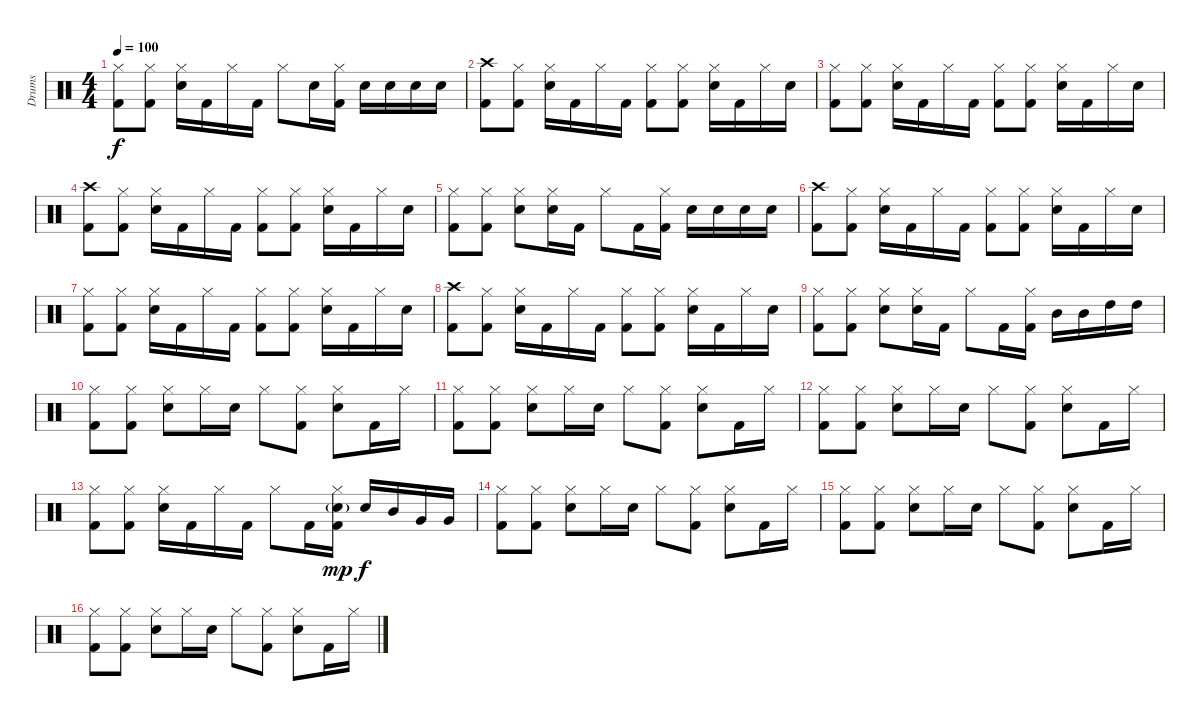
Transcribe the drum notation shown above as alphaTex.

\track ("Drums" "Drums") {instrument percussion}
\staff {score}
\articulation defaults
\ts (4 4)
\tempo 100
\clef neutral
\ks c
("Hi-Hat (closed)" "Kick (hit) 2").8{dy f} ("Hi-Hat (closed)" "Kick (hit) 2").8 ("Hi-Hat (closed)" "Snare (hit) 2").16 "Kick (hit) 2".16 "Hi-Hat (closed)".16 "Kick (hit) 2".16 "Hi-Hat (closed)".8 "Snare (hit) 2".16 ("Hi-Hat (closed)" "Kick (hit) 2").16 "Snare (hit) 2".16 "Snare (hit) 2".16 "Snare (hit) 2".16 "Snare (hit) 2".16 |
("Crash high (hit)" "Kick (hit) 2").8 ("Hi-Hat (closed)" "Kick (hit) 2").8 ("Hi-Hat (closed)" "Snare (hit) 2").16 "Kick (hit) 2".16 "Hi-Hat (closed)".16 "Kick (hit) 2".16 ("Hi-Hat (closed)" "Kick (hit) 2").8 ("Hi-Hat (closed)" "Kick (hit) 2").8 ("Hi-Hat (closed)" "Snare (hit) 2").16 "Kick (hit) 2".16 "Hi-Hat (closed)".16 "Snare (hit) 2".16 |
("Hi-Hat (closed)" "Kick (hit) 2").8 ("Hi-Hat (closed)" "Kick (hit) 2").8 ("Hi-Hat (closed)" "Snare (hit) 2").16 "Kick (hit) 2".16 "Hi-Hat (closed)".16 "Kick (hit) 2".16 ("Hi-Hat (closed)" "Kick (hit) 2").8 ("Hi-Hat (closed)" "Kick (hit) 2").8 ("Hi-Hat (closed)" "Snare (hit) 2").16 "Kick (hit) 2".16 "Hi-Hat (closed)".16 "Snare (hit) 2".16 |
("Crash high (hit)" "Kick (hit) 2").8 ("Hi-Hat (closed)" "Kick (hit) 2").8 ("Hi-Hat (closed)" "Snare (hit) 2").16 "Kick (hit) 2".16 "Hi-Hat (closed)".16 "Kick (hit) 2".16 ("Hi-Hat (closed)" "Kick (hit) 2").8 ("Hi-Hat (closed)" "Kick (hit) 2").8 ("Hi-Hat (closed)" "Snare (hit) 2").16 "Kick (hit) 2".16 "Hi-Hat (closed)".16 "Snare (hit) 2".16 |
("Hi-Hat (closed)" "Kick (hit) 2").8 ("Hi-Hat (closed)" "Kick (hit) 2").8 ("Hi-Hat (closed)" "Snare (hit) 2").8 ("Hi-Hat (closed)" "Snare (hit) 2").16 "Kick (hit) 2".16 "Hi-Hat (closed)".8 "Kick (hit) 2".16 ("Hi-Hat (closed)" "Kick (hit) 2").16 "Electric Snare (hit)".16 "Electric Snare (hit)".16 "Electric Snare (hit)".16 "Electric Snare (hit)".16 |
("Crash high (hit)" "Kick (hit) 2").8 ("Hi-Hat (closed)" "Kick (hit) 2").8 ("Hi-Hat (closed)" "Snare (hit) 2").16 "Kick (hit) 2".16 "Hi-Hat (closed)".16 "Kick (hit) 2".16 ("Hi-Hat (closed)" "Kick (hit) 2").8 ("Hi-Hat (closed)" "Kick (hit) 2").8 ("Hi-Hat (closed)" "Snare (hit) 2").16 "Kick (hit) 2".16 "Hi-Hat (closed)".16 "Snare (hit) 2".16 |
("Hi-Hat (closed)" "Kick (hit) 2").8 ("Hi-Hat (closed)" "Kick (hit) 2").8 ("Hi-Hat (closed)" "Snare (hit) 2").16 "Kick (hit) 2".16 "Hi-Hat (closed)".16 "Kick (hit) 2".16 ("Hi-Hat (closed)" "Kick (hit) 2").8 ("Hi-Hat (closed)" "Kick (hit) 2").8 ("Hi-Hat (closed)" "Snare (hit) 2").16 "Kick (hit) 2".16 "Hi-Hat (closed)".16 "Snare (hit) 2".16 |
("Crash high (hit)" "Kick (hit) 2").8 ("Hi-Hat (closed)" "Kick (hit) 2").8 ("Hi-Hat (closed)" "Snare (hit) 2").16 "Kick (hit) 2".16 "Hi-Hat (closed)".16 "Kick (hit) 2".16 ("Hi-Hat (closed)" "Kick (hit) 2").8 ("Hi-Hat (closed)" "Kick (hit) 2").8 ("Hi-Hat (closed)" "Snare (hit) 2").16 "Kick (hit) 2".16 "Hi-Hat (closed)".16 "Snare (hit) 2".16 |
("Hi-Hat (closed)" "Kick (hit) 2").8 ("Hi-Hat (closed)" "Kick (hit) 2").8 ("Hi-Hat (closed)" "Snare (hit) 2").8 ("Hi-Hat (closed)" "Snare (hit) 2").16 "Kick (hit) 2".16 "Hi-Hat (closed)".8 "Kick (hit) 2".16 ("Hi-Hat (closed)" "Kick (hit) 2").16 "Mid Tom (hit)".16 "Mid Tom (hit)".16 "High Tom (hit)".16 "High Tom (hit)".16 |
("Hi-Hat (closed)" "Kick (hit) 2").8 ("Hi-Hat (closed)" "Kick (hit) 2").8 ("Hi-Hat (closed)" "Snare (hit) 2").8 "Hi-Hat (closed)".16 "Snare (hit) 2".16 "Hi-Hat (closed)".8 ("Hi-Hat (closed)" "Kick (hit) 2").8 ("Hi-Hat (closed)" "Snare (hit) 2").8 "Kick (hit) 2".16 "Hi-Hat (closed)".16 |
("Hi-Hat (closed)" "Kick (hit) 2").8 ("Hi-Hat (closed)" "Kick (hit) 2").8 ("Hi-Hat (closed)" "Snare (hit) 2").8 "Hi-Hat (closed)".16 "Snare (hit) 2".16 "Hi-Hat (closed)".8 ("Hi-Hat (closed)" "Kick (hit) 2").8 ("Hi-Hat (closed)" "Snare (hit) 2").8 "Kick (hit) 2".16 "Hi-Hat (closed)".16 |
("Hi-Hat (closed)" "Kick (hit) 2").8 ("Hi-Hat (closed)" "Kick (hit) 2").8 ("Hi-Hat (closed)" "Snare (hit) 2").8 "Hi-Hat (closed)".16 "Snare (hit) 2".16 "Hi-Hat (closed)".8 ("Hi-Hat (closed)" "Kick (hit) 2").8 ("Hi-Hat (closed)" "Snare (hit) 2").8 "Kick (hit) 2".16 "Hi-Hat (closed)".16 |
("Hi-Hat (closed)" "Kick (hit) 2").8 ("Hi-Hat (closed)" "Kick (hit) 2").8 ("Hi-Hat (closed)" "Snare (hit) 2").16 "Kick (hit) 2".16 "Hi-Hat (closed)".16 "Kick (hit) 2".16 "Hi-Hat (closed)".8 "Kick (hit) 2".16 ("Hi-Hat (closed)" "Snare (hit) 2"{g} "Kick (hit) 2").16{dy mp} "Electric Snare (hit)".16{dy f} "Mid Tom (hit)".16 "Very Low Tom (hit)".16 "Very Low Tom (hit)".16 |
("Hi-Hat (closed)" "Kick (hit) 2").8 ("Hi-Hat (closed)" "Kick (hit) 2").8 ("Hi-Hat (closed)" "Snare (hit) 2").8 "Hi-Hat (closed)".16 "Snare (hit) 2".16 "Hi-Hat (closed)".8 ("Hi-Hat (closed)" "Kick (hit) 2").8 ("Hi-Hat (closed)" "Snare (hit) 2").8 "Kick (hit) 2".16 "Hi-Hat (closed)".16 |
("Hi-Hat (closed)" "Kick (hit) 2").8 ("Hi-Hat (closed)" "Kick (hit) 2").8 ("Hi-Hat (closed)" "Snare (hit) 2").8 "Hi-Hat (closed)".16 "Snare (hit) 2".16 "Hi-Hat (closed)".8 ("Hi-Hat (closed)" "Kick (hit) 2").8 ("Hi-Hat (closed)" "Snare (hit) 2").8 "Kick (hit) 2".16 "Hi-Hat (closed)".16 |
("Hi-Hat (closed)" "Kick (hit) 2").8 ("Hi-Hat (closed)" "Kick (hit) 2").8 ("Hi-Hat (closed)" "Snare (hit) 2").8 "Hi-Hat (closed)".16 "Snare (hit) 2".16 "Hi-Hat (closed)".8 ("Hi-Hat (closed)" "Kick (hit) 2").8 ("Hi-Hat (closed)" "Snare (hit) 2").8 "Kick (hit) 2".16 "Hi-Hat (closed)".16
